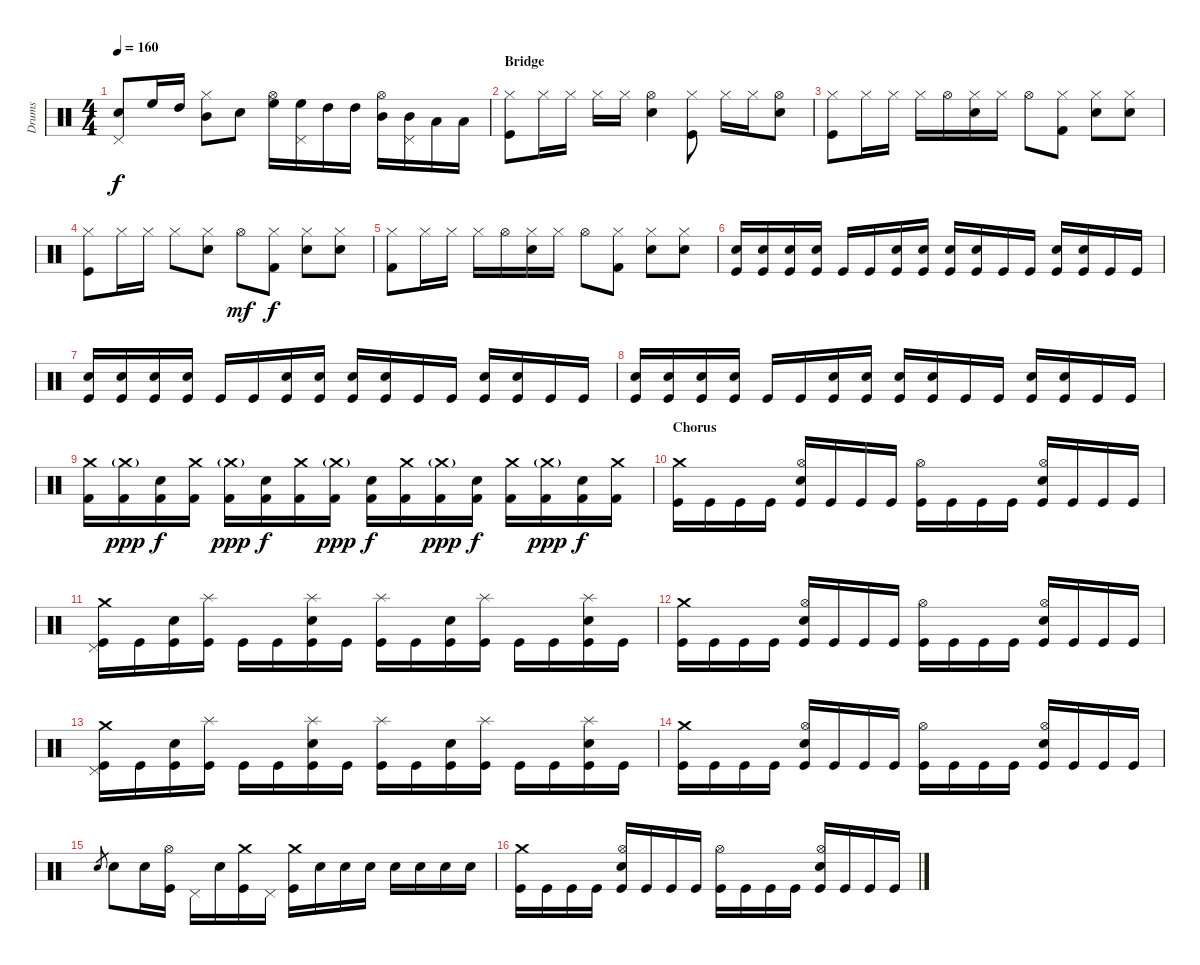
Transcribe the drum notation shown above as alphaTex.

\track ("Drums" "Drums") {instrument percussion}
\staff {score}
\articulation defaults
\ts (4 4)
\tempo 160
\clef neutral
\ks c
("Pedal Hi-Hat (hit)" "Electric Snare (hit)").8{dy f} "High Floor Tom (hit)".16 "High Tom (hit)".16 ("Hi-Hat (closed)" "Mid Tom (hit)").8 "Electric Snare (hit)".8 ("Hi-Hat (open)" "High Floor Tom (hit)").16 ("Pedal Hi-Hat (hit)" "High Floor Tom (hit)").16 "High Tom (hit)".16 "High Tom (hit)".16 ("Hi-Hat (open)" "Mid Tom (hit)").16 ("Pedal Hi-Hat (hit)" "Mid Tom (hit)").16 "Low Tom (hit)".16 "Low Tom (hit)".16 |
\section ("" "Bridge")
("Hi-Hat (closed)" "Kick (hit)").8 "Hi-Hat (closed)".16 "Hi-Hat (closed)".16 "Hi-Hat (closed)".16 "Hi-Hat (closed)".16 ("Hi-Hat (open)" "Electric Snare (hit)").4 ("Hi-Hat (closed)" "Kick (hit)").8 "Hi-Hat (closed)".16 "Hi-Hat (closed)".16 ("Hi-Hat (open)" "Electric Snare (hit)").8 |
("Hi-Hat (closed)" "Kick (hit)").8 "Hi-Hat (closed)".16 "Hi-Hat (closed)".16 "Hi-Hat (closed)".16 "Hi-Hat (open)".16 ("Hi-Hat (closed)" "Electric Snare (hit)").16 "Hi-Hat (closed)".16 "Hi-Hat (open)".8 ("Hi-Hat (closed)" "Kick (hit) 2").8 ("Hi-Hat (closed)" "Electric Snare (hit)").8 ("Hi-Hat (closed)" "Electric Snare (hit)").8 |
("Hi-Hat (closed)" "Kick (hit)").8 "Hi-Hat (closed)".16 "Hi-Hat (closed)".16 "Hi-Hat (closed)".8 ("Hi-Hat (closed)" "Electric Snare (hit)").8 "Hi-Hat (open)".8{dy mf} ("Hi-Hat (closed)" "Kick (hit) 2").8{dy f} ("Hi-Hat (closed)" "Electric Snare (hit)").8 ("Hi-Hat (closed)" "Electric Snare (hit)").8 |
("Hi-Hat (closed)" "Kick (hit) 2").8 "Hi-Hat (closed)".16 "Hi-Hat (closed)".16 "Hi-Hat (closed)".16 "Hi-Hat (open)".16 ("Hi-Hat (closed)" "Electric Snare (hit)").16 "Hi-Hat (closed)".16 "Hi-Hat (open)".8 ("Hi-Hat (closed)" "Kick (hit) 2").8 ("Hi-Hat (closed)" "Electric Snare (hit)").8 ("Hi-Hat (closed)" "Electric Snare (hit)").8 |
("Electric Snare (hit)" "Kick (hit)").16 ("Electric Snare (hit)" "Kick (hit)").16 ("Electric Snare (hit)" "Kick (hit)").16 ("Electric Snare (hit)" "Kick (hit)").16 "Kick (hit)".16 "Kick (hit)".16 ("Electric Snare (hit)" "Kick (hit)").16 ("Electric Snare (hit)" "Kick (hit)").16 ("Electric Snare (hit)" "Kick (hit)").16 ("Electric Snare (hit)" "Kick (hit)").16 "Kick (hit)".16 "Kick (hit)".16 ("Electric Snare (hit)" "Kick (hit)").16 ("Electric Snare (hit)" "Kick (hit)").16 "Kick (hit)".16 "Kick (hit)".16 |
("Electric Snare (hit)" "Kick (hit)").16 ("Electric Snare (hit)" "Kick (hit)").16 ("Electric Snare (hit)" "Kick (hit)").16 ("Electric Snare (hit)" "Kick (hit)").16 "Kick (hit)".16 "Kick (hit)".16 ("Electric Snare (hit)" "Kick (hit)").16 ("Electric Snare (hit)" "Kick (hit)").16 ("Electric Snare (hit)" "Kick (hit)").16 ("Electric Snare (hit)" "Kick (hit)").16 "Kick (hit)".16 "Kick (hit)".16 ("Electric Snare (hit)" "Kick (hit)").16 ("Electric Snare (hit)" "Kick (hit)").16 "Kick (hit)".16 "Kick (hit)".16 |
("Electric Snare (hit)" "Kick (hit)").16 ("Electric Snare (hit)" "Kick (hit)").16 ("Electric Snare (hit)" "Kick (hit)").16 ("Electric Snare (hit)" "Kick (hit)").16 "Kick (hit)".16 "Kick (hit)".16 ("Electric Snare (hit)" "Kick (hit)").16 ("Electric Snare (hit)" "Kick (hit)").16 ("Electric Snare (hit)" "Kick (hit)").16 ("Electric Snare (hit)" "Kick (hit)").16 "Kick (hit)".16 "Kick (hit)".16 ("Electric Snare (hit)" "Kick (hit)").16 ("Electric Snare (hit)" "Kick (hit)").16 "Kick (hit)".16 "Kick (hit)".16 |
("Crash medium (hit)" "Kick (hit) 2").16 ("Crash medium (hit)"{g} "Kick (hit) 2").16{dy ppp} ("Electric Snare (hit)" "Kick (hit) 2").16{dy f} ("Crash medium (hit)" "Kick (hit) 2").16 ("Crash medium (hit)"{g} "Kick (hit) 2").16{dy ppp} ("Electric Snare (hit)" "Kick (hit) 2").16{dy f} ("Crash medium (hit)" "Kick (hit) 2").16 ("Crash medium (hit)"{g} "Kick (hit) 2").16{dy ppp} ("Electric Snare (hit)" "Kick (hit) 2").16{dy f} ("Crash medium (hit)" "Kick (hit) 2").16 ("Crash medium (hit)"{g} "Kick (hit) 2").16{dy ppp} ("Electric Snare (hit)" "Kick (hit) 2").16{dy f} ("Crash medium (hit)" "Kick (hit) 2").16 ("Crash medium (hit)"{g} "Kick (hit) 2").16{dy ppp} ("Electric Snare (hit)" "Kick (hit) 2").16{dy f} ("Crash medium (hit)" "Kick (hit) 2").16 |
\section ("" "Chorus")
("Crash medium (hit)" "Kick (hit)").16 "Kick (hit)".16 "Kick (hit)".16 "Kick (hit)".16 ("Hi-Hat (open)" "Electric Snare (hit)" "Kick (hit)").16 "Kick (hit)".16 "Kick (hit)".16 "Kick (hit)".16 ("Hi-Hat (open)" "Kick (hit)").16 "Kick (hit)".16 "Kick (hit)".16 "Kick (hit)".16 ("Hi-Hat (open)" "Electric Snare (hit)" "Kick (hit)").16 "Kick (hit)".16 "Kick (hit)".16 "Kick (hit)".16 |
("Crash medium (hit)" "Pedal Hi-Hat (hit)" "Kick (hit)").16 "Kick (hit)".16 ("Electric Snare (hit)" "Kick (hit)").16 ("Splash (hit)" "Kick (hit)").16 "Kick (hit)".16 "Kick (hit)".16 ("Splash (hit)" "Electric Snare (hit)" "Kick (hit)").16 "Kick (hit)".16 ("Splash (hit)" "Kick (hit)").16 "Kick (hit)".16 ("Electric Snare (hit)" "Kick (hit)").16 ("Splash (hit)" "Kick (hit)").16 "Kick (hit)".16 "Kick (hit)".16 ("Splash (hit)" "Electric Snare (hit)" "Kick (hit)").16 "Kick (hit)".16 |
("Crash medium (hit)" "Kick (hit)").16 "Kick (hit)".16 "Kick (hit)".16 "Kick (hit)".16 ("Hi-Hat (open)" "Electric Snare (hit)" "Kick (hit)").16 "Kick (hit)".16 "Kick (hit)".16 "Kick (hit)".16 ("Hi-Hat (open)" "Kick (hit)").16 "Kick (hit)".16 "Kick (hit)".16 "Kick (hit)".16 ("Hi-Hat (open)" "Electric Snare (hit)" "Kick (hit)").16 "Kick (hit)".16 "Kick (hit)".16 "Kick (hit)".16 |
("Crash medium (hit)" "Pedal Hi-Hat (hit)" "Kick (hit)").16 "Kick (hit)".16 ("Electric Snare (hit)" "Kick (hit)").16 ("Splash (hit)" "Kick (hit)").16 "Kick (hit)".16 "Kick (hit)".16 ("Splash (hit)" "Electric Snare (hit)" "Kick (hit)").16 "Kick (hit)".16 ("Splash (hit)" "Kick (hit)").16 "Kick (hit)".16 ("Electric Snare (hit)" "Kick (hit)").16 ("Splash (hit)" "Kick (hit)").16 "Kick (hit)".16 "Kick (hit)".16 ("Splash (hit)" "Electric Snare (hit)" "Kick (hit)").16 "Kick (hit)".16 |
("Crash medium (hit)" "Kick (hit)").16 "Kick (hit)".16 "Kick (hit)".16 "Kick (hit)".16 ("Hi-Hat (open)" "Electric Snare (hit)" "Kick (hit)").16 "Kick (hit)".16 "Kick (hit)".16 "Kick (hit)".16 ("Hi-Hat (open)" "Kick (hit)").16 "Kick (hit)".16 "Kick (hit)".16 "Kick (hit)".16 ("Hi-Hat (open)" "Electric Snare (hit)" "Kick (hit)").16 "Kick (hit)".16 "Kick (hit)".16 "Kick (hit)".16 |
"Electric Snare (hit)".8{gr} "Electric Snare (hit)".8 "Electric Snare (hit)".16 ("Hi-Hat (open)" "Kick (hit)").16 "Pedal Hi-Hat (hit)".16 "Electric Snare (hit)".16 ("Crash medium (hit)" "Kick (hit)").16 "Pedal Hi-Hat (hit)".16 ("Crash medium (hit)" "Kick (hit)").16 "Electric Snare (hit)".16 "Electric Snare (hit)".16 "Electric Snare (hit)".16 "Electric Snare (hit)".16 "Electric Snare (hit)".16 "Electric Snare (hit)".16 "Electric Snare (hit)".16 |
("Crash medium (hit)" "Kick (hit)").16 "Kick (hit)".16 "Kick (hit)".16 "Kick (hit)".16 ("Hi-Hat (open)" "Electric Snare (hit)" "Kick (hit)").16 "Kick (hit)".16 "Kick (hit)".16 "Kick (hit)".16 ("Hi-Hat (open)" "Kick (hit)").16 "Kick (hit)".16 "Kick (hit)".16 "Kick (hit)".16 ("Hi-Hat (open)" "Electric Snare (hit)" "Kick (hit)").16 "Kick (hit)".16 "Kick (hit)".16 "Kick (hit)".16
